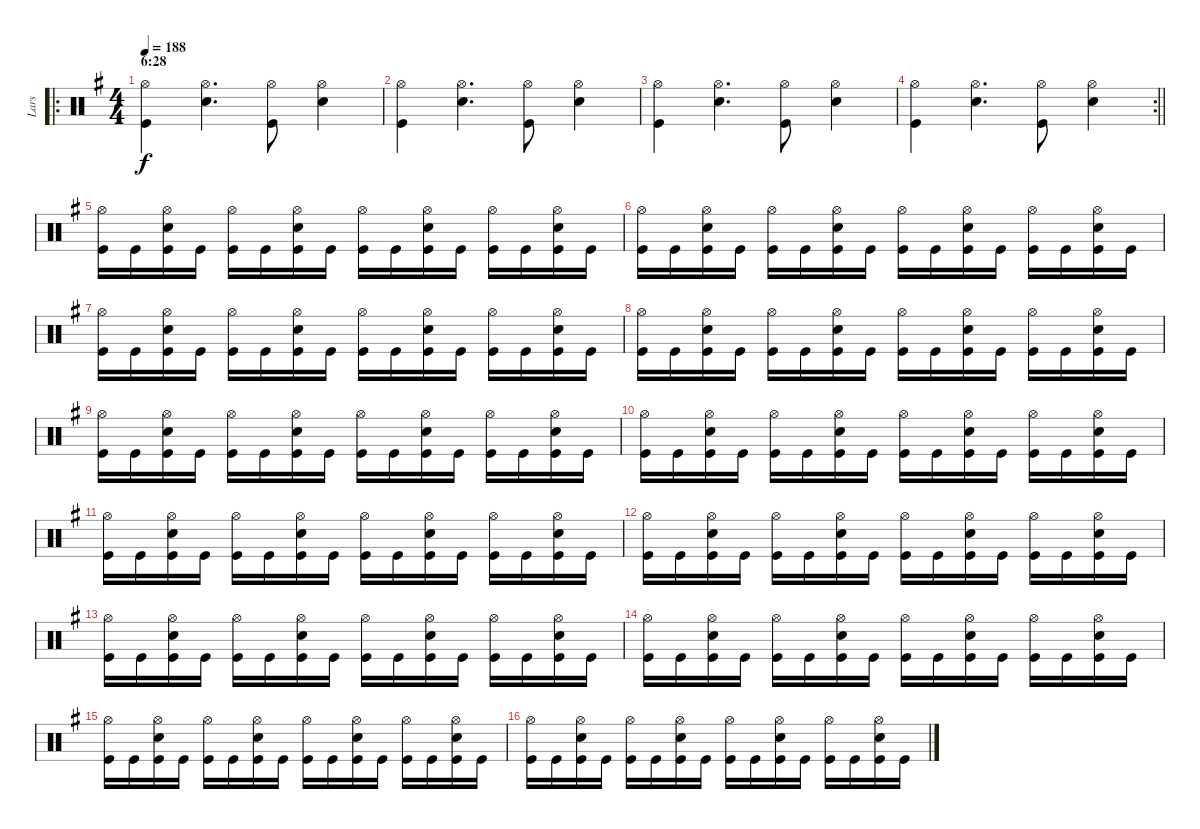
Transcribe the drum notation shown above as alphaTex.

\track ("Lars" "Lars") {instrument percussion}
\staff {score}
\articulation defaults
\ro
\ts (4 4)
\section ("" "6:28")
\tempo 188
\clef neutral
\ks eminor
("Hi-Hat (open)" "Kick (hit)").4{dy f} ("Hi-Hat (open)" "Snare (hit) 2").4{d} ("Hi-Hat (open)" "Kick (hit)").8 ("Hi-Hat (open)" "Snare (hit) 2").4 |
("Hi-Hat (open)" "Kick (hit)").4 ("Hi-Hat (open)" "Snare (hit) 2").4{d} ("Hi-Hat (open)" "Kick (hit)").8 ("Hi-Hat (open)" "Snare (hit) 2").4 |
("Hi-Hat (open)" "Kick (hit)").4 ("Hi-Hat (open)" "Snare (hit) 2").4{d} ("Hi-Hat (open)" "Kick (hit)").8 ("Hi-Hat (open)" "Snare (hit) 2").4 |
\rc 2
\barLineRight lightlight
("Hi-Hat (open)" "Kick (hit)").4 ("Hi-Hat (open)" "Snare (hit) 2").4{d} ("Hi-Hat (open)" "Kick (hit)").8 ("Hi-Hat (open)" "Snare (hit) 2").4 |
("Hi-Hat (open)" "Kick (hit)").16 "Kick (hit)".16 ("Hi-Hat (open)" "Kick (hit)" "Snare (hit) 2").16 "Kick (hit)".16 ("Hi-Hat (open)" "Kick (hit)").16 "Kick (hit)".16 ("Kick (hit)" "Hi-Hat (open)" "Snare (hit) 2").16 "Kick (hit)".16 ("Kick (hit)" "Hi-Hat (open)").16 "Kick (hit)".16 ("Kick (hit)" "Hi-Hat (open)" "Snare (hit) 2").16 "Kick (hit)".16 ("Kick (hit)" "Hi-Hat (open)").16 "Kick (hit)".16 ("Kick (hit)" "Hi-Hat (open)" "Snare (hit) 2").16 "Kick (hit)".16 |
("Hi-Hat (open)" "Kick (hit)").16 "Kick (hit)".16 ("Hi-Hat (open)" "Kick (hit)" "Snare (hit) 2").16 "Kick (hit)".16 ("Hi-Hat (open)" "Kick (hit)").16 "Kick (hit)".16 ("Kick (hit)" "Hi-Hat (open)" "Snare (hit) 2").16 "Kick (hit)".16 ("Kick (hit)" "Hi-Hat (open)").16 "Kick (hit)".16 ("Kick (hit)" "Hi-Hat (open)" "Snare (hit) 2").16 "Kick (hit)".16 ("Kick (hit)" "Hi-Hat (open)").16 "Kick (hit)".16 ("Kick (hit)" "Hi-Hat (open)" "Snare (hit) 2").16 "Kick (hit)".16 |
("Hi-Hat (open)" "Kick (hit)").16 "Kick (hit)".16 ("Hi-Hat (open)" "Kick (hit)" "Snare (hit) 2").16 "Kick (hit)".16 ("Hi-Hat (open)" "Kick (hit)").16 "Kick (hit)".16 ("Kick (hit)" "Hi-Hat (open)" "Snare (hit) 2").16 "Kick (hit)".16 ("Kick (hit)" "Hi-Hat (open)").16 "Kick (hit)".16 ("Kick (hit)" "Hi-Hat (open)" "Snare (hit) 2").16 "Kick (hit)".16 ("Kick (hit)" "Hi-Hat (open)").16 "Kick (hit)".16 ("Kick (hit)" "Hi-Hat (open)" "Snare (hit) 2").16 "Kick (hit)".16 |
("Hi-Hat (open)" "Kick (hit)").16 "Kick (hit)".16 ("Hi-Hat (open)" "Kick (hit)" "Snare (hit) 2").16 "Kick (hit)".16 ("Hi-Hat (open)" "Kick (hit)").16 "Kick (hit)".16 ("Kick (hit)" "Hi-Hat (open)" "Snare (hit) 2").16 "Kick (hit)".16 ("Kick (hit)" "Hi-Hat (open)").16 "Kick (hit)".16 ("Kick (hit)" "Hi-Hat (open)" "Snare (hit) 2").16 "Kick (hit)".16 ("Kick (hit)" "Hi-Hat (open)").16 "Kick (hit)".16 ("Kick (hit)" "Hi-Hat (open)" "Snare (hit) 2").16 "Kick (hit)".16 |
("Hi-Hat (open)" "Kick (hit)").16 "Kick (hit)".16 ("Hi-Hat (open)" "Kick (hit)" "Snare (hit) 2").16 "Kick (hit)".16 ("Hi-Hat (open)" "Kick (hit)").16 "Kick (hit)".16 ("Kick (hit)" "Hi-Hat (open)" "Snare (hit) 2").16 "Kick (hit)".16 ("Kick (hit)" "Hi-Hat (open)").16 "Kick (hit)".16 ("Kick (hit)" "Hi-Hat (open)" "Snare (hit) 2").16 "Kick (hit)".16 ("Kick (hit)" "Hi-Hat (open)").16 "Kick (hit)".16 ("Kick (hit)" "Hi-Hat (open)" "Snare (hit) 2").16 "Kick (hit)".16 |
("Hi-Hat (open)" "Kick (hit)").16 "Kick (hit)".16 ("Hi-Hat (open)" "Kick (hit)" "Snare (hit) 2").16 "Kick (hit)".16 ("Hi-Hat (open)" "Kick (hit)").16 "Kick (hit)".16 ("Kick (hit)" "Hi-Hat (open)" "Snare (hit) 2").16 "Kick (hit)".16 ("Kick (hit)" "Hi-Hat (open)").16 "Kick (hit)".16 ("Kick (hit)" "Hi-Hat (open)" "Snare (hit) 2").16 "Kick (hit)".16 ("Kick (hit)" "Hi-Hat (open)").16 "Kick (hit)".16 ("Kick (hit)" "Hi-Hat (open)" "Snare (hit) 2").16 "Kick (hit)".16 |
("Hi-Hat (open)" "Kick (hit)").16 "Kick (hit)".16 ("Hi-Hat (open)" "Kick (hit)" "Snare (hit) 2").16 "Kick (hit)".16 ("Hi-Hat (open)" "Kick (hit)").16 "Kick (hit)".16 ("Kick (hit)" "Hi-Hat (open)" "Snare (hit) 2").16 "Kick (hit)".16 ("Kick (hit)" "Hi-Hat (open)").16 "Kick (hit)".16 ("Kick (hit)" "Hi-Hat (open)" "Snare (hit) 2").16 "Kick (hit)".16 ("Kick (hit)" "Hi-Hat (open)").16 "Kick (hit)".16 ("Kick (hit)" "Hi-Hat (open)" "Snare (hit) 2").16 "Kick (hit)".16 |
("Hi-Hat (open)" "Kick (hit)").16 "Kick (hit)".16 ("Hi-Hat (open)" "Kick (hit)" "Snare (hit) 2").16 "Kick (hit)".16 ("Hi-Hat (open)" "Kick (hit)").16 "Kick (hit)".16 ("Kick (hit)" "Hi-Hat (open)" "Snare (hit) 2").16 "Kick (hit)".16 ("Kick (hit)" "Hi-Hat (open)").16 "Kick (hit)".16 ("Kick (hit)" "Hi-Hat (open)" "Snare (hit) 2").16 "Kick (hit)".16 ("Kick (hit)" "Hi-Hat (open)").16 "Kick (hit)".16 ("Kick (hit)" "Hi-Hat (open)" "Snare (hit) 2").16 "Kick (hit)".16 |
("Hi-Hat (open)" "Kick (hit)").16 "Kick (hit)".16 ("Hi-Hat (open)" "Kick (hit)" "Snare (hit) 2").16 "Kick (hit)".16 ("Hi-Hat (open)" "Kick (hit)").16 "Kick (hit)".16 ("Kick (hit)" "Hi-Hat (open)" "Snare (hit) 2").16 "Kick (hit)".16 ("Kick (hit)" "Hi-Hat (open)").16 "Kick (hit)".16 ("Kick (hit)" "Hi-Hat (open)" "Snare (hit) 2").16 "Kick (hit)".16 ("Kick (hit)" "Hi-Hat (open)").16 "Kick (hit)".16 ("Kick (hit)" "Hi-Hat (open)" "Snare (hit) 2").16 "Kick (hit)".16 |
("Hi-Hat (open)" "Kick (hit)").16 "Kick (hit)".16 ("Hi-Hat (open)" "Kick (hit)" "Snare (hit) 2").16 "Kick (hit)".16 ("Hi-Hat (open)" "Kick (hit)").16 "Kick (hit)".16 ("Kick (hit)" "Hi-Hat (open)" "Snare (hit) 2").16 "Kick (hit)".16 ("Kick (hit)" "Hi-Hat (open)").16 "Kick (hit)".16 ("Kick (hit)" "Hi-Hat (open)" "Snare (hit) 2").16 "Kick (hit)".16 ("Kick (hit)" "Hi-Hat (open)").16 "Kick (hit)".16 ("Kick (hit)" "Hi-Hat (open)" "Snare (hit) 2").16 "Kick (hit)".16 |
("Hi-Hat (open)" "Kick (hit)").16 "Kick (hit)".16 ("Hi-Hat (open)" "Kick (hit)" "Snare (hit) 2").16 "Kick (hit)".16 ("Hi-Hat (open)" "Kick (hit)").16 "Kick (hit)".16 ("Kick (hit)" "Hi-Hat (open)" "Snare (hit) 2").16 "Kick (hit)".16 ("Kick (hit)" "Hi-Hat (open)").16 "Kick (hit)".16 ("Kick (hit)" "Hi-Hat (open)" "Snare (hit) 2").16 "Kick (hit)".16 ("Kick (hit)" "Hi-Hat (open)").16 "Kick (hit)".16 ("Kick (hit)" "Hi-Hat (open)" "Snare (hit) 2").16 "Kick (hit)".16 |
("Hi-Hat (open)" "Kick (hit)").16 "Kick (hit)".16 ("Hi-Hat (open)" "Kick (hit)" "Snare (hit) 2").16 "Kick (hit)".16 ("Hi-Hat (open)" "Kick (hit)").16 "Kick (hit)".16 ("Kick (hit)" "Hi-Hat (open)" "Snare (hit) 2").16 "Kick (hit)".16 ("Kick (hit)" "Hi-Hat (open)").16 "Kick (hit)".16 ("Kick (hit)" "Hi-Hat (open)" "Snare (hit) 2").16 "Kick (hit)".16 ("Kick (hit)" "Hi-Hat (open)").16 "Kick (hit)".16 ("Kick (hit)" "Hi-Hat (open)" "Snare (hit) 2").16 "Kick (hit)".16
